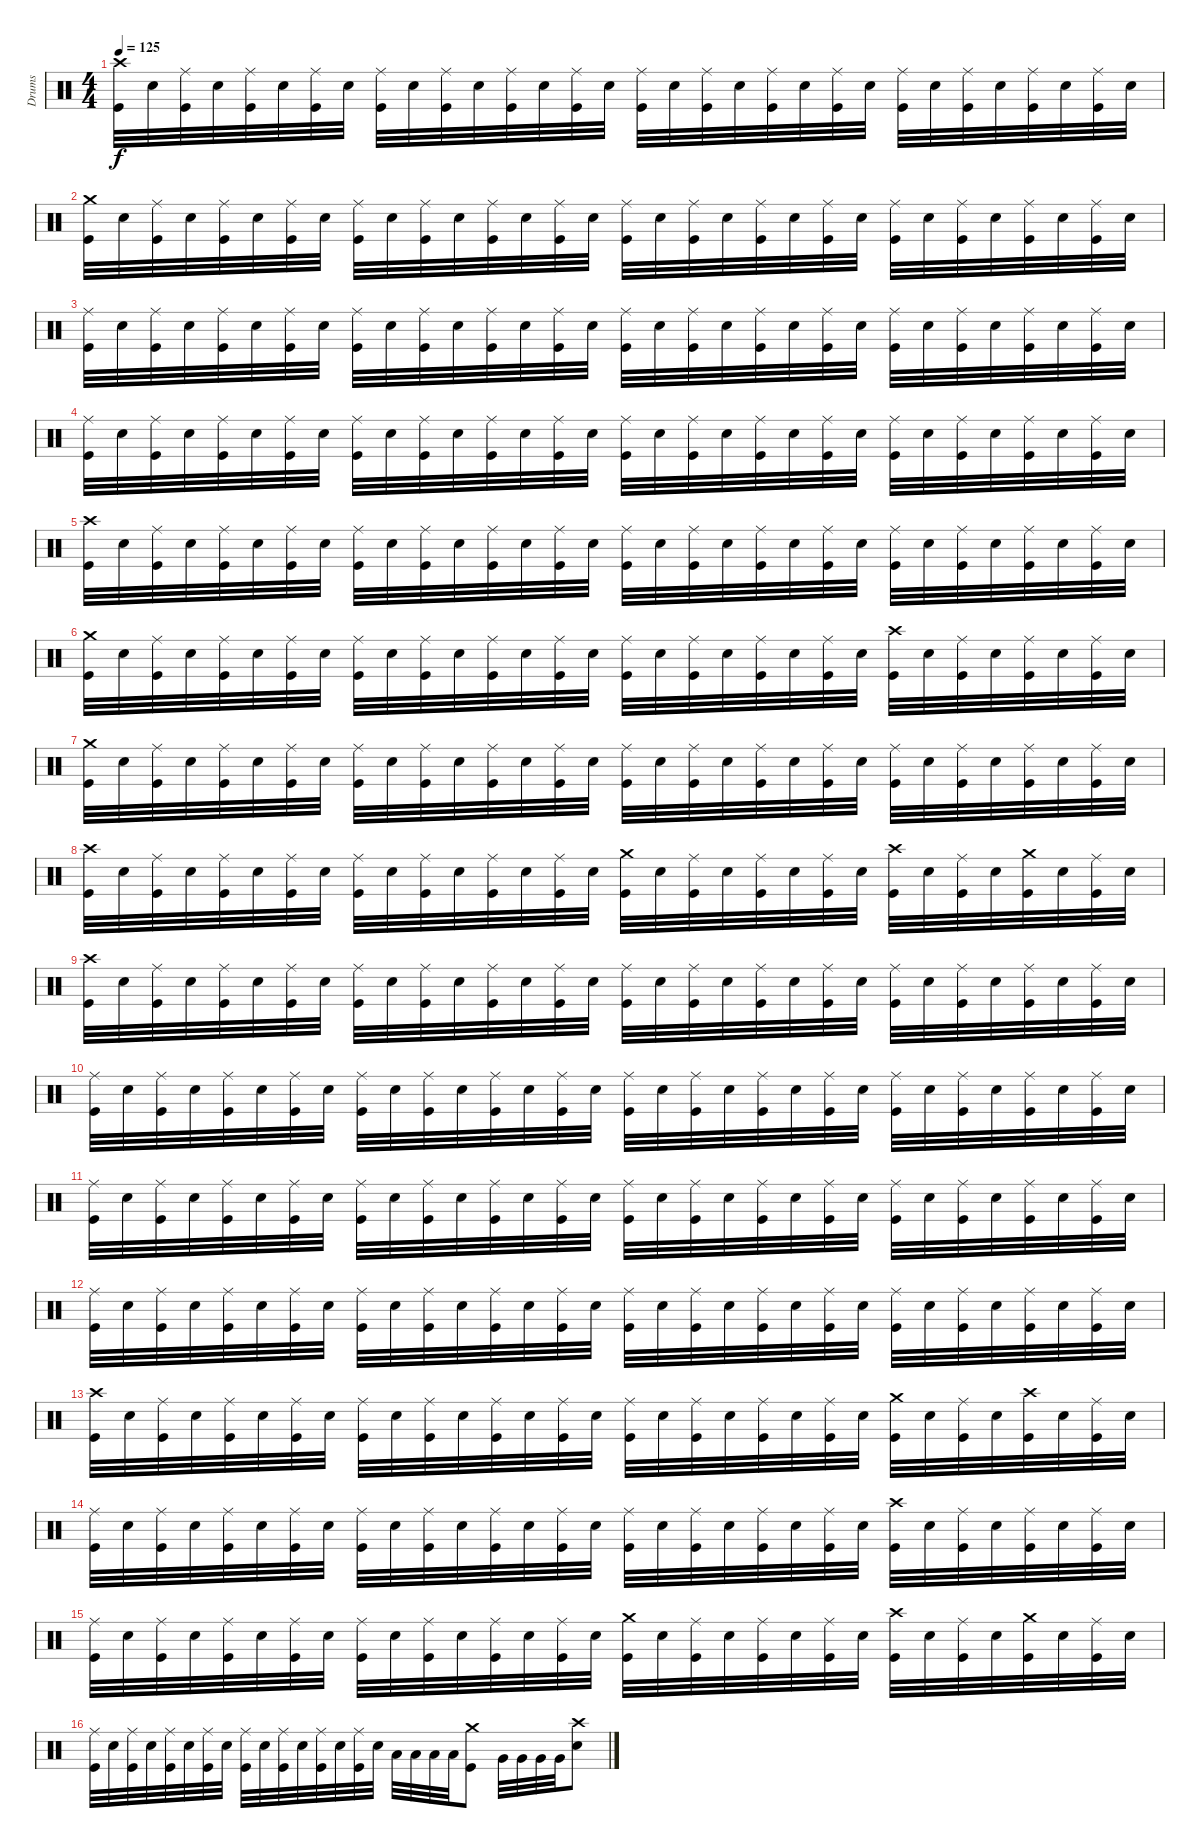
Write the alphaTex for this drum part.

\track ("Drums" "Drums") {instrument percussion}
\staff {score}
\articulation defaults
\ts (4 4)
\tempo 125
\clef neutral
\ks c
("Crash high (hit)" "Kick (hit)").32{dy f} "Electric Snare (hit)".32 ("Ride (middle)" "Kick (hit)").32 "Electric Snare (hit)".32 ("Ride (middle)" "Kick (hit)").32 "Electric Snare (hit)".32 ("Ride (middle)" "Kick (hit)").32 "Electric Snare (hit)".32 ("Ride (middle)" "Kick (hit)").32 "Electric Snare (hit)".32 ("Ride (middle)" "Kick (hit)").32 "Electric Snare (hit)".32 ("Ride (middle)" "Kick (hit)").32 "Electric Snare (hit)".32 ("Ride (middle)" "Kick (hit)").32 "Electric Snare (hit)".32 ("Ride (middle)" "Kick (hit)").32 "Electric Snare (hit)".32 ("Ride (middle)" "Kick (hit)").32 "Electric Snare (hit)".32 ("Ride (middle)" "Kick (hit)").32 "Electric Snare (hit)".32 ("Ride (middle)" "Kick (hit)").32 "Electric Snare (hit)".32 ("Ride (middle)" "Kick (hit)").32 "Electric Snare (hit)".32 ("Ride (middle)" "Kick (hit)").32 "Electric Snare (hit)".32 ("Ride (middle)" "Kick (hit)").32 "Electric Snare (hit)".32 ("Ride (middle)" "Kick (hit)").32 "Electric Snare (hit)".32 |
("Crash medium (hit)" "Kick (hit)").32 "Electric Snare (hit)".32 ("Ride (middle)" "Kick (hit)").32 "Electric Snare (hit)".32 ("Ride (middle)" "Kick (hit)").32 "Electric Snare (hit)".32 ("Ride (middle)" "Kick (hit)").32 "Electric Snare (hit)".32 ("Ride (middle)" "Kick (hit)").32 "Electric Snare (hit)".32 ("Ride (middle)" "Kick (hit)").32 "Electric Snare (hit)".32 ("Ride (middle)" "Kick (hit)").32 "Electric Snare (hit)".32 ("Ride (middle)" "Kick (hit)").32 "Electric Snare (hit)".32 ("Ride (middle)" "Kick (hit)").32 "Electric Snare (hit)".32 ("Ride (middle)" "Kick (hit)").32 "Electric Snare (hit)".32 ("Ride (middle)" "Kick (hit)").32 "Electric Snare (hit)".32 ("Ride (middle)" "Kick (hit)").32 "Electric Snare (hit)".32 ("Ride (middle)" "Kick (hit)").32 "Electric Snare (hit)".32 ("Ride (middle)" "Kick (hit)").32 "Electric Snare (hit)".32 ("Ride (middle)" "Kick (hit)").32 "Electric Snare (hit)".32 ("Ride (middle)" "Kick (hit)").32 "Electric Snare (hit)".32 |
("Ride (middle)" "Kick (hit)").32 "Electric Snare (hit)".32 ("Ride (middle)" "Kick (hit)").32 "Electric Snare (hit)".32 ("Ride (middle)" "Kick (hit)").32 "Electric Snare (hit)".32 ("Ride (middle)" "Kick (hit)").32 "Electric Snare (hit)".32 ("Ride (middle)" "Kick (hit)").32 "Electric Snare (hit)".32 ("Ride (middle)" "Kick (hit)").32 "Electric Snare (hit)".32 ("Ride (middle)" "Kick (hit)").32 "Electric Snare (hit)".32 ("Ride (middle)" "Kick (hit)").32 "Electric Snare (hit)".32 ("Ride (middle)" "Kick (hit)").32 "Electric Snare (hit)".32 ("Ride (middle)" "Kick (hit)").32 "Electric Snare (hit)".32 ("Ride (middle)" "Kick (hit)").32 "Electric Snare (hit)".32 ("Ride (middle)" "Kick (hit)").32 "Electric Snare (hit)".32 ("Ride (middle)" "Kick (hit)").32 "Electric Snare (hit)".32 ("Ride (middle)" "Kick (hit)").32 "Electric Snare (hit)".32 ("Ride (middle)" "Kick (hit)").32 "Electric Snare (hit)".32 ("Ride (middle)" "Kick (hit)").32 "Electric Snare (hit)".32 |
("Ride (middle)" "Kick (hit)").32 "Electric Snare (hit)".32 ("Ride (middle)" "Kick (hit)").32 "Electric Snare (hit)".32 ("Ride (middle)" "Kick (hit)").32 "Electric Snare (hit)".32 ("Ride (middle)" "Kick (hit)").32 "Electric Snare (hit)".32 ("Ride (middle)" "Kick (hit)").32 "Electric Snare (hit)".32 ("Ride (middle)" "Kick (hit)").32 "Electric Snare (hit)".32 ("Ride (middle)" "Kick (hit)").32 "Electric Snare (hit)".32 ("Ride (middle)" "Kick (hit)").32 "Electric Snare (hit)".32 ("Ride (middle)" "Kick (hit)").32 "Electric Snare (hit)".32 ("Ride (middle)" "Kick (hit)").32 "Electric Snare (hit)".32 ("Ride (middle)" "Kick (hit)").32 "Electric Snare (hit)".32 ("Ride (middle)" "Kick (hit)").32 "Electric Snare (hit)".32 ("Ride (middle)" "Kick (hit)").32 "Electric Snare (hit)".32 ("Ride (middle)" "Kick (hit)").32 "Electric Snare (hit)".32 ("Ride (middle)" "Kick (hit)").32 "Electric Snare (hit)".32 ("Ride (middle)" "Kick (hit)").32 "Electric Snare (hit)".32 |
("Crash high (hit)" "Kick (hit)").32 "Electric Snare (hit)".32 ("Ride (middle)" "Kick (hit)").32 "Electric Snare (hit)".32 ("Ride (middle)" "Kick (hit)").32 "Electric Snare (hit)".32 ("Ride (middle)" "Kick (hit)").32 "Electric Snare (hit)".32 ("Ride (middle)" "Kick (hit)").32 "Electric Snare (hit)".32 ("Ride (middle)" "Kick (hit)").32 "Electric Snare (hit)".32 ("Ride (middle)" "Kick (hit)").32 "Electric Snare (hit)".32 ("Ride (middle)" "Kick (hit)").32 "Electric Snare (hit)".32 ("Ride (middle)" "Kick (hit)").32 "Electric Snare (hit)".32 ("Ride (middle)" "Kick (hit)").32 "Electric Snare (hit)".32 ("Ride (middle)" "Kick (hit)").32 "Electric Snare (hit)".32 ("Ride (middle)" "Kick (hit)").32 "Electric Snare (hit)".32 ("Ride (middle)" "Kick (hit)").32 "Electric Snare (hit)".32 ("Ride (middle)" "Kick (hit)").32 "Electric Snare (hit)".32 ("Ride (middle)" "Kick (hit)").32 "Electric Snare (hit)".32 ("Ride (middle)" "Kick (hit)").32 "Electric Snare (hit)".32 |
("Crash medium (hit)" "Kick (hit)").32 "Electric Snare (hit)".32 ("Ride (middle)" "Kick (hit)").32 "Electric Snare (hit)".32 ("Ride (middle)" "Kick (hit)").32 "Electric Snare (hit)".32 ("Ride (middle)" "Kick (hit)").32 "Electric Snare (hit)".32 ("Ride (middle)" "Kick (hit)").32 "Electric Snare (hit)".32 ("Ride (middle)" "Kick (hit)").32 "Electric Snare (hit)".32 ("Ride (middle)" "Kick (hit)").32 "Electric Snare (hit)".32 ("Ride (middle)" "Kick (hit)").32 "Electric Snare (hit)".32 ("Ride (middle)" "Kick (hit)").32 "Electric Snare (hit)".32 ("Ride (middle)" "Kick (hit)").32 "Electric Snare (hit)".32 ("Ride (middle)" "Kick (hit)").32 "Electric Snare (hit)".32 ("Ride (middle)" "Kick (hit)").32 "Electric Snare (hit)".32 ("Crash high (hit)" "Kick (hit)").32 "Electric Snare (hit)".32 ("Ride (middle)" "Kick (hit)").32 "Electric Snare (hit)".32 ("Ride (middle)" "Kick (hit)").32 "Electric Snare (hit)".32 ("Ride (middle)" "Kick (hit)").32 "Electric Snare (hit)".32 |
("Crash medium (hit)" "Kick (hit)").32 "Electric Snare (hit)".32 ("Ride (middle)" "Kick (hit)").32 "Electric Snare (hit)".32 ("Ride (middle)" "Kick (hit)").32 "Electric Snare (hit)".32 ("Ride (middle)" "Kick (hit)").32 "Electric Snare (hit)".32 ("Ride (middle)" "Kick (hit)").32 "Electric Snare (hit)".32 ("Ride (middle)" "Kick (hit)").32 "Electric Snare (hit)".32 ("Ride (middle)" "Kick (hit)").32 "Electric Snare (hit)".32 ("Ride (middle)" "Kick (hit)").32 "Electric Snare (hit)".32 ("Ride (middle)" "Kick (hit)").32 "Electric Snare (hit)".32 ("Ride (middle)" "Kick (hit)").32 "Electric Snare (hit)".32 ("Ride (middle)" "Kick (hit)").32 "Electric Snare (hit)".32 ("Ride (middle)" "Kick (hit)").32 "Electric Snare (hit)".32 ("Ride (middle)" "Kick (hit)").32 "Electric Snare (hit)".32 ("Ride (middle)" "Kick (hit)").32 "Electric Snare (hit)".32 ("Ride (middle)" "Kick (hit)").32 "Electric Snare (hit)".32 ("Ride (middle)" "Kick (hit)").32 "Electric Snare (hit)".32 |
("Crash high (hit)" "Kick (hit)").32 "Electric Snare (hit)".32 ("Ride (middle)" "Kick (hit)").32 "Electric Snare (hit)".32 ("Ride (middle)" "Kick (hit)").32 "Electric Snare (hit)".32 ("Ride (middle)" "Kick (hit)").32 "Electric Snare (hit)".32 ("Ride (middle)" "Kick (hit)").32 "Electric Snare (hit)".32 ("Ride (middle)" "Kick (hit)").32 "Electric Snare (hit)".32 ("Ride (middle)" "Kick (hit)").32 "Electric Snare (hit)".32 ("Ride (middle)" "Kick (hit)").32 "Electric Snare (hit)".32 ("Crash medium (hit)" "Kick (hit)").32 "Electric Snare (hit)".32 ("Ride (middle)" "Kick (hit)").32 "Electric Snare (hit)".32 ("Ride (middle)" "Kick (hit)").32 "Electric Snare (hit)".32 ("Ride (middle)" "Kick (hit)").32 "Electric Snare (hit)".32 ("Crash high (hit)" "Kick (hit)").32 "Electric Snare (hit)".32 ("Ride (middle)" "Kick (hit)").32 "Electric Snare (hit)".32 ("Crash medium (hit)" "Kick (hit)").32 "Electric Snare (hit)".32 ("Ride (middle)" "Kick (hit)").32 "Electric Snare (hit)".32 |
("Crash high (hit)" "Kick (hit)").32 "Electric Snare (hit)".32 ("Ride (middle)" "Kick (hit)").32 "Electric Snare (hit)".32 ("Ride (middle)" "Kick (hit)").32 "Electric Snare (hit)".32 ("Ride (middle)" "Kick (hit)").32 "Electric Snare (hit)".32 ("Ride (middle)" "Kick (hit)").32 "Electric Snare (hit)".32 ("Ride (middle)" "Kick (hit)").32 "Electric Snare (hit)".32 ("Ride (middle)" "Kick (hit)").32 "Electric Snare (hit)".32 ("Ride (middle)" "Kick (hit)").32 "Electric Snare (hit)".32 ("Ride (middle)" "Kick (hit)").32 "Electric Snare (hit)".32 ("Ride (middle)" "Kick (hit)").32 "Electric Snare (hit)".32 ("Ride (middle)" "Kick (hit)").32 "Electric Snare (hit)".32 ("Ride (middle)" "Kick (hit)").32 "Electric Snare (hit)".32 ("Ride (middle)" "Kick (hit)").32 "Electric Snare (hit)".32 ("Ride (middle)" "Kick (hit)").32 "Electric Snare (hit)".32 ("Ride (middle)" "Kick (hit)").32 "Electric Snare (hit)".32 ("Ride (middle)" "Kick (hit)").32 "Electric Snare (hit)".32 |
("Ride (middle)" "Kick (hit)").32 "Electric Snare (hit)".32 ("Ride (middle)" "Kick (hit)").32 "Electric Snare (hit)".32 ("Ride (middle)" "Kick (hit)").32 "Electric Snare (hit)".32 ("Ride (middle)" "Kick (hit)").32 "Electric Snare (hit)".32 ("Ride (middle)" "Kick (hit)").32 "Electric Snare (hit)".32 ("Ride (middle)" "Kick (hit)").32 "Electric Snare (hit)".32 ("Ride (middle)" "Kick (hit)").32 "Electric Snare (hit)".32 ("Ride (middle)" "Kick (hit)").32 "Electric Snare (hit)".32 ("Ride (middle)" "Kick (hit)").32 "Electric Snare (hit)".32 ("Ride (middle)" "Kick (hit)").32 "Electric Snare (hit)".32 ("Ride (middle)" "Kick (hit)").32 "Electric Snare (hit)".32 ("Ride (middle)" "Kick (hit)").32 "Electric Snare (hit)".32 ("Ride (middle)" "Kick (hit)").32 "Electric Snare (hit)".32 ("Ride (middle)" "Kick (hit)").32 "Electric Snare (hit)".32 ("Ride (middle)" "Kick (hit)").32 "Electric Snare (hit)".32 ("Ride (middle)" "Kick (hit)").32 "Electric Snare (hit)".32 |
("Ride (middle)" "Kick (hit)").32 "Electric Snare (hit)".32 ("Ride (middle)" "Kick (hit)").32 "Electric Snare (hit)".32 ("Ride (middle)" "Kick (hit)").32 "Electric Snare (hit)".32 ("Ride (middle)" "Kick (hit)").32 "Electric Snare (hit)".32 ("Ride (middle)" "Kick (hit)").32 "Electric Snare (hit)".32 ("Ride (middle)" "Kick (hit)").32 "Electric Snare (hit)".32 ("Ride (middle)" "Kick (hit)").32 "Electric Snare (hit)".32 ("Ride (middle)" "Kick (hit)").32 "Electric Snare (hit)".32 ("Ride (middle)" "Kick (hit)").32 "Electric Snare (hit)".32 ("Ride (middle)" "Kick (hit)").32 "Electric Snare (hit)".32 ("Ride (middle)" "Kick (hit)").32 "Electric Snare (hit)".32 ("Ride (middle)" "Kick (hit)").32 "Electric Snare (hit)".32 ("Ride (middle)" "Kick (hit)").32 "Electric Snare (hit)".32 ("Ride (middle)" "Kick (hit)").32 "Electric Snare (hit)".32 ("Ride (middle)" "Kick (hit)").32 "Electric Snare (hit)".32 ("Ride (middle)" "Kick (hit)").32 "Electric Snare (hit)".32 |
("Ride (middle)" "Kick (hit)").32 "Electric Snare (hit)".32 ("Ride (middle)" "Kick (hit)").32 "Electric Snare (hit)".32 ("Ride (middle)" "Kick (hit)").32 "Electric Snare (hit)".32 ("Ride (middle)" "Kick (hit)").32 "Electric Snare (hit)".32 ("Ride (middle)" "Kick (hit)").32 "Electric Snare (hit)".32 ("Ride (middle)" "Kick (hit)").32 "Electric Snare (hit)".32 ("Ride (middle)" "Kick (hit)").32 "Electric Snare (hit)".32 ("Ride (middle)" "Kick (hit)").32 "Electric Snare (hit)".32 ("Ride (middle)" "Kick (hit)").32 "Electric Snare (hit)".32 ("Ride (middle)" "Kick (hit)").32 "Electric Snare (hit)".32 ("Ride (middle)" "Kick (hit)").32 "Electric Snare (hit)".32 ("Ride (middle)" "Kick (hit)").32 "Electric Snare (hit)".32 ("Ride (middle)" "Kick (hit)").32 "Electric Snare (hit)".32 ("Ride (middle)" "Kick (hit)").32 "Electric Snare (hit)".32 ("Ride (middle)" "Kick (hit)").32 "Electric Snare (hit)".32 ("Ride (middle)" "Kick (hit)").32 "Electric Snare (hit)".32 |
("Crash high (hit)" "Kick (hit)").32 "Electric Snare (hit)".32 ("Ride (middle)" "Kick (hit)").32 "Electric Snare (hit)".32 ("Ride (middle)" "Kick (hit)").32 "Electric Snare (hit)".32 ("Ride (middle)" "Kick (hit)").32 "Electric Snare (hit)".32 ("Ride (middle)" "Kick (hit)").32 "Electric Snare (hit)".32 ("Ride (middle)" "Kick (hit)").32 "Electric Snare (hit)".32 ("Ride (middle)" "Kick (hit)").32 "Electric Snare (hit)".32 ("Ride (middle)" "Kick (hit)").32 "Electric Snare (hit)".32 ("Ride (middle)" "Kick (hit)").32 "Electric Snare (hit)".32 ("Ride (middle)" "Kick (hit)").32 "Electric Snare (hit)".32 ("Ride (middle)" "Kick (hit)").32 "Electric Snare (hit)".32 ("Ride (middle)" "Kick (hit)").32 "Electric Snare (hit)".32 ("Crash medium (hit)" "Kick (hit)").32 "Electric Snare (hit)".32 ("Ride (middle)" "Kick (hit)").32 "Electric Snare (hit)".32 ("Crash high (hit)" "Kick (hit)").32 "Electric Snare (hit)".32 ("Ride (middle)" "Kick (hit)").32 "Electric Snare (hit)".32 |
("Ride (middle)" "Kick (hit)").32 "Electric Snare (hit)".32 ("Ride (middle)" "Kick (hit)").32 "Electric Snare (hit)".32 ("Ride (middle)" "Kick (hit)").32 "Electric Snare (hit)".32 ("Ride (middle)" "Kick (hit)").32 "Electric Snare (hit)".32 ("Ride (middle)" "Kick (hit)").32 "Electric Snare (hit)".32 ("Ride (middle)" "Kick (hit)").32 "Electric Snare (hit)".32 ("Ride (middle)" "Kick (hit)").32 "Electric Snare (hit)".32 ("Ride (middle)" "Kick (hit)").32 "Electric Snare (hit)".32 ("Ride (middle)" "Kick (hit)").32 "Electric Snare (hit)".32 ("Ride (middle)" "Kick (hit)").32 "Electric Snare (hit)".32 ("Ride (middle)" "Kick (hit)").32 "Electric Snare (hit)".32 ("Ride (middle)" "Kick (hit)").32 "Electric Snare (hit)".32 ("Crash high (hit)" "Kick (hit)").32 "Electric Snare (hit)".32 ("Ride (middle)" "Kick (hit)").32 "Electric Snare (hit)".32 ("Ride (middle)" "Kick (hit)").32 "Electric Snare (hit)".32 ("Ride (middle)" "Kick (hit)").32 "Electric Snare (hit)".32 |
("Ride (middle)" "Kick (hit)").32 "Electric Snare (hit)".32 ("Ride (middle)" "Kick (hit)").32 "Electric Snare (hit)".32 ("Ride (middle)" "Kick (hit)").32 "Electric Snare (hit)".32 ("Ride (middle)" "Kick (hit)").32 "Electric Snare (hit)".32 ("Ride (middle)" "Kick (hit)").32 "Electric Snare (hit)".32 ("Ride (middle)" "Kick (hit)").32 "Electric Snare (hit)".32 ("Ride (middle)" "Kick (hit)").32 "Electric Snare (hit)".32 ("Ride (middle)" "Kick (hit)").32 "Electric Snare (hit)".32 ("Crash medium (hit)" "Kick (hit)").32 "Electric Snare (hit)".32 ("Ride (middle)" "Kick (hit)").32 "Electric Snare (hit)".32 ("Ride (middle)" "Kick (hit)").32 "Electric Snare (hit)".32 ("Ride (middle)" "Kick (hit)").32 "Electric Snare (hit)".32 ("Crash high (hit)" "Kick (hit)").32 "Electric Snare (hit)".32 ("Ride (middle)" "Kick (hit)").32 "Electric Snare (hit)".32 ("Crash medium (hit)" "Kick (hit)").32 "Electric Snare (hit)".32 ("Ride (middle)" "Kick (hit)").32 "Electric Snare (hit)".32 |
("Ride (middle)" "Kick (hit)").32 "Electric Snare (hit)".32 ("Ride (middle)" "Kick (hit)").32 "Electric Snare (hit)".32 ("Ride (middle)" "Kick (hit)").32 "Electric Snare (hit)".32 ("Ride (middle)" "Kick (hit)").32 "Electric Snare (hit)".32 ("Ride (middle)" "Kick (hit)").32 "Electric Snare (hit)".32 ("Ride (middle)" "Kick (hit)").32 "Electric Snare (hit)".32 ("Ride (middle)" "Kick (hit)").32 "Electric Snare (hit)".32 ("Ride (middle)" "Kick (hit)").32 "Electric Snare (hit)".32 "Low Tom (hit)".32 "Low Tom (hit)".32 "Low Tom (hit)".32 "Low Tom (hit)".32 ("Crash medium (hit)" "Kick (hit)").8 "Very Low Tom (hit)".32 "Very Low Tom (hit)".32 "Very Low Tom (hit)".32 "Very Low Tom (hit)".32 ("Crash high (hit)" "Electric Snare (hit)").8
